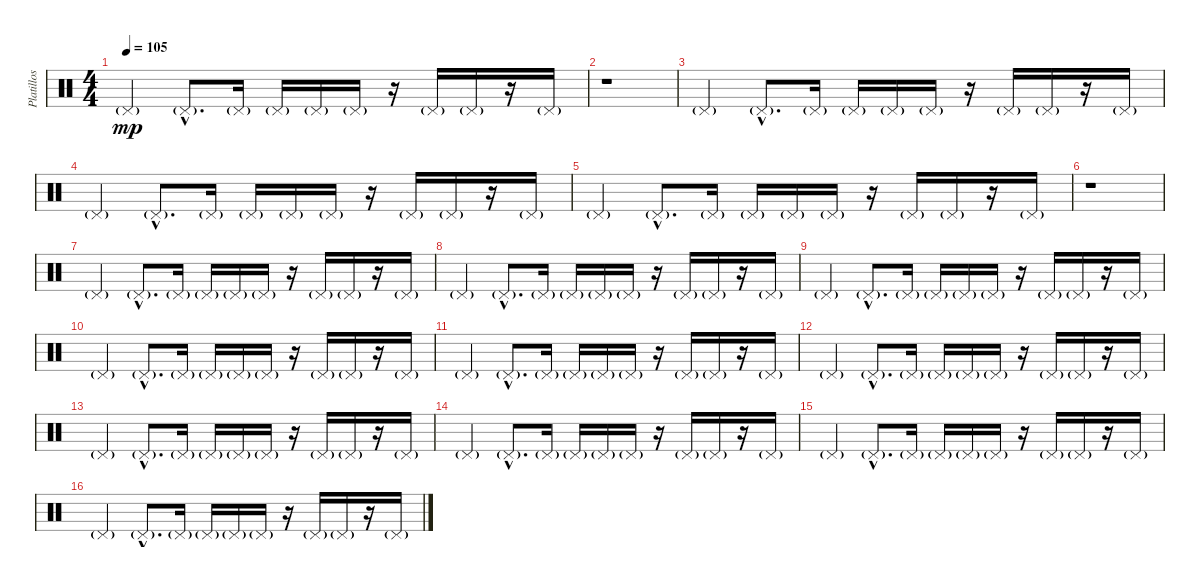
\track ("Platillos" "Platillos") {instrument percussion}
\staff {score}
\articulation defaults
\ts (4 4)
\tempo 105
\clef neutral
\ks c "Pedal Hi-Hat (hit)"{g}.4{dy mp} "Pedal Hi-Hat (hit)"{g hac}.8{d} "Pedal Hi-Hat (hit)"{g}.16 "Pedal Hi-Hat (hit)"{g}.16 "Pedal Hi-Hat (hit)"{g}.16 "Pedal Hi-Hat (hit)"{g}.16
r.16 "Pedal Hi-Hat (hit)"{g}.16 "Pedal Hi-Hat (hit)"{g}.16 r.16 "Pedal Hi-Hat (hit)"{g}.16 |
r.1 |
"Pedal Hi-Hat (hit)"{g}.4 "Pedal Hi-Hat (hit)"{g hac}.8{d} "Pedal Hi-Hat (hit)"{g}.16 "Pedal Hi-Hat (hit)"{g}.16 "Pedal Hi-Hat (hit)"{g}.16 "Pedal Hi-Hat (hit)"{g}.16 r.16 "Pedal Hi-Hat (hit)"{g}.16 "Pedal Hi-Hat (hit)"{g}.16 r.16 "Pedal Hi-Hat (hit)"{g}.16 |
"Pedal Hi-Hat (hit)"{g}.4 "Pedal Hi-Hat (hit)"{g hac}.8{d} "Pedal Hi-Hat (hit)"{g}.16 "Pedal Hi-Hat (hit)"{g}.16 "Pedal Hi-Hat (hit)"{g}.16 "Pedal Hi-Hat (hit)"{g}.16 r.16 "Pedal Hi-Hat (hit)"{g}.16 "Pedal Hi-Hat (hit)"{g}.16 r.16 "Pedal Hi-Hat (hit)"{g}.16 |
"Pedal Hi-Hat (hit)"{g}.4 "Pedal Hi-Hat (hit)"{g hac}.8{d} "Pedal Hi-Hat (hit)"{g}.16 "Pedal Hi-Hat (hit)"{g}.16 "Pedal Hi-Hat (hit)"{g}.16 "Pedal Hi-Hat (hit)"{g}.16 r.16 "Pedal Hi-Hat (hit)"{g}.16 "Pedal Hi-Hat (hit)"{g}.16 r.16 "Pedal Hi-Hat (hit)"{g}.16 |
r.1 |
"Pedal Hi-Hat (hit)"{g}.4 "Pedal Hi-Hat (hit)"{g hac}.8{d} "Pedal Hi-Hat (hit)"{g}.16 "Pedal Hi-Hat (hit)"{g}.16 "Pedal Hi-Hat (hit)"{g}.16 "Pedal Hi-Hat (hit)"{g}.16 r.16 "Pedal Hi-Hat (hit)"{g}.16 "Pedal Hi-Hat (hit)"{g}.16 r.16 "Pedal Hi-Hat (hit)"{g}.16 |
"Pedal Hi-Hat (hit)"{g}.4 "Pedal Hi-Hat (hit)"{g hac}.8{d} "Pedal Hi-Hat (hit)"{g}.16 "Pedal Hi-Hat (hit)"{g}.16 "Pedal Hi-Hat (hit)"{g}.16 "Pedal Hi-Hat (hit)"{g}.16 r.16 "Pedal Hi-Hat (hit)"{g}.16 "Pedal Hi-Hat (hit)"{g}.16 r.16 "Pedal Hi-Hat (hit)"{g}.16 |
"Pedal Hi-Hat (hit)"{g}.4 "Pedal Hi-Hat (hit)"{g hac}.8{d} "Pedal Hi-Hat (hit)"{g}.16 "Pedal Hi-Hat (hit)"{g}.16 "Pedal Hi-Hat (hit)"{g}.16 "Pedal Hi-Hat (hit)"{g}.16 r.16 "Pedal Hi-Hat (hit)"{g}.16 "Pedal Hi-Hat (hit)"{g}.16 r.16 "Pedal Hi-Hat (hit)"{g}.16 |
"Pedal Hi-Hat (hit)"{g}.4 "Pedal Hi-Hat (hit)"{g hac}.8{d} "Pedal Hi-Hat (hit)"{g}.16 "Pedal Hi-Hat (hit)"{g}.16 "Pedal Hi-Hat (hit)"{g}.16 "Pedal Hi-Hat (hit)"{g}.16 r.16 "Pedal Hi-Hat (hit)"{g}.16 "Pedal Hi-Hat (hit)"{g}.16 r.16 "Pedal Hi-Hat (hit)"{g}.16 |
"Pedal Hi-Hat (hit)"{g}.4 "Pedal Hi-Hat (hit)"{g hac}.8{d} "Pedal Hi-Hat (hit)"{g}.16 "Pedal Hi-Hat (hit)"{g}.16 "Pedal Hi-Hat (hit)"{g}.16 "Pedal Hi-Hat (hit)"{g}.16 r.16 "Pedal Hi-Hat (hit)"{g}.16 "Pedal Hi-Hat (hit)"{g}.16 r.16 "Pedal Hi-Hat (hit)"{g}.16 |
"Pedal Hi-Hat (hit)"{g}.4 "Pedal Hi-Hat (hit)"{g hac}.8{d} "Pedal Hi-Hat (hit)"{g}.16 "Pedal Hi-Hat (hit)"{g}.16 "Pedal Hi-Hat (hit)"{g}.16 "Pedal Hi-Hat (hit)"{g}.16 r.16 "Pedal Hi-Hat (hit)"{g}.16 "Pedal Hi-Hat (hit)"{g}.16 r.16 "Pedal Hi-Hat (hit)"{g}.16 |
"Pedal Hi-Hat (hit)"{g}.4 "Pedal Hi-Hat (hit)"{g hac}.8{d} "Pedal Hi-Hat (hit)"{g}.16 "Pedal Hi-Hat (hit)"{g}.16 "Pedal Hi-Hat (hit)"{g}.16 "Pedal Hi-Hat (hit)"{g}.16 r.16 "Pedal Hi-Hat (hit)"{g}.16 "Pedal Hi-Hat (hit)"{g}.16 r.16 "Pedal Hi-Hat (hit)"{g}.16 |
"Pedal Hi-Hat (hit)"{g}.4 "Pedal Hi-Hat (hit)"{g hac}.8{d} "Pedal Hi-Hat (hit)"{g}.16 "Pedal Hi-Hat (hit)"{g}.16 "Pedal Hi-Hat (hit)"{g}.16 "Pedal Hi-Hat (hit)"{g}.16 r.16 "Pedal Hi-Hat (hit)"{g}.16 "Pedal Hi-Hat (hit)"{g}.16 r.16 "Pedal Hi-Hat (hit)"{g}.16 |
"Pedal Hi-Hat (hit)"{g}.4 "Pedal Hi-Hat (hit)"{g hac}.8{d} "Pedal Hi-Hat (hit)"{g}.16 "Pedal Hi-Hat (hit)"{g}.16 "Pedal Hi-Hat (hit)"{g}.16 "Pedal Hi-Hat (hit)"{g}.16 r.16 "Pedal Hi-Hat (hit)"{g}.16 "Pedal Hi-Hat (hit)"{g}.16 r.16 "Pedal Hi-Hat (hit)"{g}.16 |
"Pedal Hi-Hat (hit)"{g}.4 "Pedal Hi-Hat (hit)"{g hac}.8{d} "Pedal Hi-Hat (hit)"{g}.16 "Pedal Hi-Hat (hit)"{g}.16 "Pedal Hi-Hat (hit)"{g}.16 "Pedal Hi-Hat (hit)"{g}.16 r.16 "Pedal Hi-Hat (hit)"{g}.16 "Pedal Hi-Hat (hit)"{g}.16 r.16 "Pedal Hi-Hat (hit)"{g}.16
